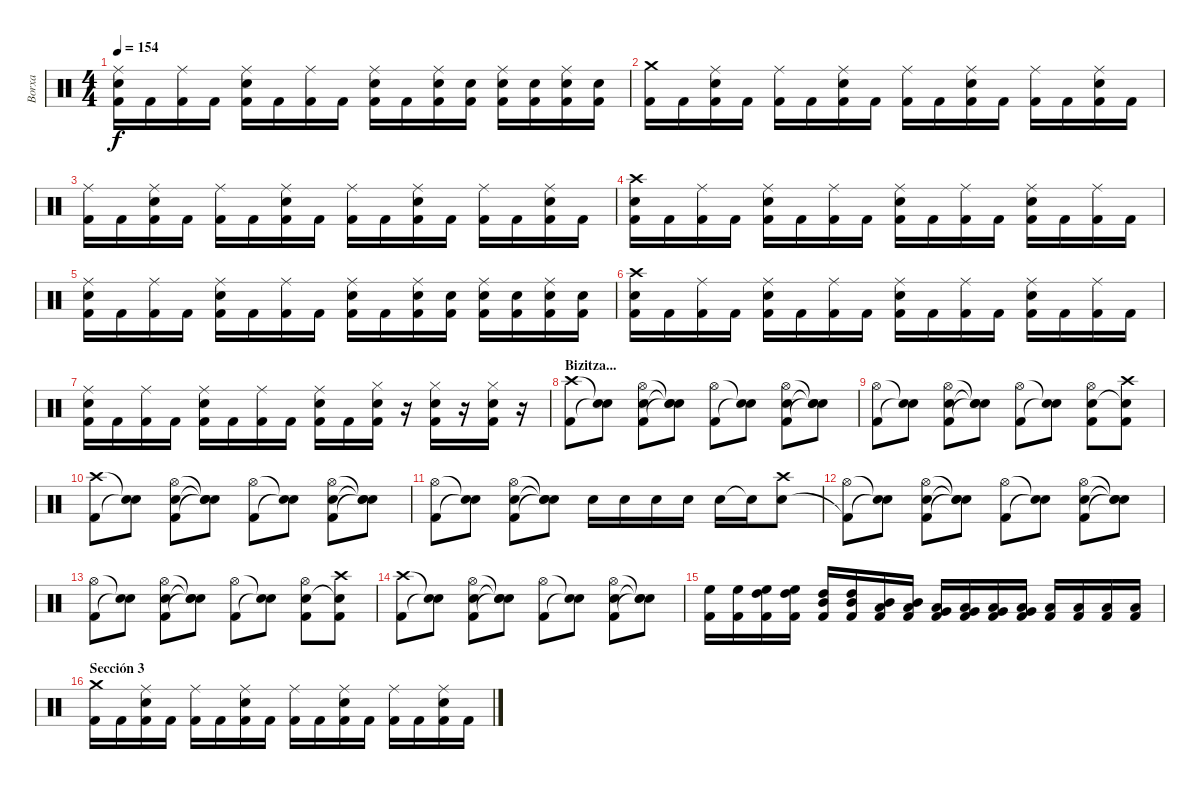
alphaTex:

\track ("Borxa" "Borxa") {instrument percussion}
\staff {score}
\articulation defaults
\ts (4 4)
\tempo 154
\clef neutral
\ks c
("Ride (middle)" "Electric Snare (hit)" "Kick (hit) 2").16{dy f} "Kick (hit) 2".16 ("Ride (middle)" "Kick (hit) 2").16 "Kick (hit) 2".16 ("Ride (middle)" "Electric Snare (hit)" "Kick (hit) 2").16 "Kick (hit) 2".16 ("Ride (middle)" "Kick (hit) 2").16 "Kick (hit) 2".16 ("Ride (middle)" "Electric Snare (hit)" "Kick (hit) 2").16 "Kick (hit) 2".16 ("Ride (middle)" "Electric Snare (hit)" "Kick (hit) 2").16 ("Electric Snare (hit)" "Kick (hit) 2").16 ("Ride (middle)" "Electric Snare (hit)" "Kick (hit) 2").16 ("Electric Snare (hit)" "Kick (hit) 2").16 ("Ride (middle)" "Electric Snare (hit)" "Kick (hit) 2").16 ("Electric Snare (hit)" "Kick (hit) 2").16 |
("Crash medium (hit)" "Kick (hit) 2").16 "Kick (hit) 2".16 ("Ride (middle)" "Electric Snare (hit)" "Kick (hit) 2").16 "Kick (hit) 2".16 ("Ride (middle)" "Kick (hit) 2").16 "Kick (hit) 2".16 ("Ride (middle)" "Electric Snare (hit)" "Kick (hit) 2").16 "Kick (hit) 2".16 ("Ride (middle)" "Kick (hit) 2").16 "Kick (hit) 2".16 ("Ride (middle)" "Electric Snare (hit)" "Kick (hit) 2").16 "Kick (hit) 2".16 ("Ride (middle)" "Kick (hit) 2").16 "Kick (hit) 2".16 ("Ride (middle)" "Electric Snare (hit)" "Kick (hit) 2").16 "Kick (hit) 2".16 |
("Ride (middle)" "Kick (hit) 2").16 "Kick (hit) 2".16 ("Ride (middle)" "Electric Snare (hit)" "Kick (hit) 2").16 "Kick (hit) 2".16 ("Ride (middle)" "Kick (hit) 2").16 "Kick (hit) 2".16 ("Ride (middle)" "Electric Snare (hit)" "Kick (hit) 2").16 "Kick (hit) 2".16 ("Ride (middle)" "Kick (hit) 2").16 "Kick (hit) 2".16 ("Ride (middle)" "Electric Snare (hit)" "Kick (hit) 2").16 "Kick (hit) 2".16 ("Ride (middle)" "Kick (hit) 2").16 "Kick (hit) 2".16 ("Ride (middle)" "Electric Snare (hit)" "Kick (hit) 2").16 "Kick (hit) 2".16 |
("Crash high (hit)" "Electric Snare (hit)" "Kick (hit) 2").16 "Kick (hit) 2".16 ("Ride (middle)" "Kick (hit) 2").16 "Kick (hit) 2".16 ("Ride (middle)" "Electric Snare (hit)" "Kick (hit) 2").16 "Kick (hit) 2".16 ("Ride (middle)" "Kick (hit) 2").16 "Kick (hit) 2".16 ("Ride (middle)" "Electric Snare (hit)" "Kick (hit) 2").16 "Kick (hit) 2".16 ("Ride (middle)" "Kick (hit) 2").16 "Kick (hit) 2".16 ("Ride (middle)" "Electric Snare (hit)" "Kick (hit) 2").16 "Kick (hit) 2".16 ("Ride (middle)" "Kick (hit) 2").16 "Kick (hit) 2".16 |
("Ride (middle)" "Electric Snare (hit)" "Kick (hit) 2").16 "Kick (hit) 2".16 ("Ride (middle)" "Kick (hit) 2").16 "Kick (hit) 2".16 ("Ride (middle)" "Electric Snare (hit)" "Kick (hit) 2").16 "Kick (hit) 2".16 ("Ride (middle)" "Kick (hit) 2").16 "Kick (hit) 2".16 ("Ride (middle)" "Electric Snare (hit)" "Kick (hit) 2").16 "Kick (hit) 2".16 ("Ride (middle)" "Electric Snare (hit)" "Kick (hit) 2").16 ("Electric Snare (hit)" "Kick (hit) 2").16 ("Ride (middle)" "Electric Snare (hit)" "Kick (hit) 2").16 ("Electric Snare (hit)" "Kick (hit) 2").16 ("Ride (middle)" "Electric Snare (hit)" "Kick (hit) 2").16 ("Electric Snare (hit)" "Kick (hit) 2").16 |
("Crash high (hit)" "Electric Snare (hit)" "Kick (hit) 2").16 "Kick (hit) 2".16 ("Ride (middle)" "Kick (hit) 2").16 "Kick (hit) 2".16 ("Ride (middle)" "Electric Snare (hit)" "Kick (hit) 2").16 "Kick (hit) 2".16 ("Ride (middle)" "Kick (hit) 2").16 "Kick (hit) 2".16 ("Ride (middle)" "Electric Snare (hit)" "Kick (hit) 2").16 "Kick (hit) 2".16 ("Ride (middle)" "Kick (hit) 2").16 "Kick (hit) 2".16 ("Ride (middle)" "Electric Snare (hit)" "Kick (hit) 2").16 "Kick (hit) 2".16 ("Ride (middle)" "Kick (hit) 2").16 "Kick (hit) 2".16 |
("Ride (middle)" "Electric Snare (hit)" "Kick (hit) 2").16 "Kick (hit) 2".16 ("Ride (middle)" "Kick (hit) 2").16 "Kick (hit) 2".16 ("Ride (middle)" "Electric Snare (hit)" "Kick (hit) 2").16 "Kick (hit) 2".16 ("Ride (middle)" "Kick (hit) 2").16 "Kick (hit) 2".16 ("Ride (middle)" "Electric Snare (hit)" "Kick (hit) 2").16 "Kick (hit) 2".16 ("Hi-Hat (closed)" "Electric Snare (hit)" "Kick (hit) 2").16 r.16 ("Hi-Hat (closed)" "Electric Snare (hit)" "Kick (hit) 2").16 r.16 ("Hi-Hat (closed)" "Electric Snare (hit)" "Kick (hit) 2").16 r.16 |
\section ("" "Bizitza...")
("Crash high (hit)" "Kick (hit) 2").8 ("Snare (hit)"{t} "Snare (hit)"{t}).8 ("Hi-Hat (open)" "Electric Snare (hit)" "Kick (hit) 2").8 ("Snare (hit)"{t} "Snare (hit)"{t} "Snare (hit)"{t}).8 ("Hi-Hat (open)" "Kick (hit) 2").8 ("Snare (hit)"{t} "Snare (hit)"{t}).8 ("Hi-Hat (open)" "Electric Snare (hit)" "Kick (hit) 2").8 ("Snare (hit)"{t} "Snare (hit)"{t} "Snare (hit)"{t}).8 |
("Hi-Hat (open)" "Kick (hit) 2").8 ("Snare (hit)"{t} "Snare (hit)"{t}).8 ("Hi-Hat (open)" "Electric Snare (hit)" "Kick (hit) 2").8 ("Snare (hit)"{t} "Snare (hit)"{t} "Snare (hit)"{t}).8 ("Hi-Hat (open)" "Kick (hit) 2").8 ("Snare (hit)"{t} "Snare (hit)"{t}).8 ("Hi-Hat (open)" "Electric Snare (hit)" "Kick (hit) 2").8 ("Crash high (hit)" "Snare (hit)"{t} "Kick (hit) 2").8 |
("Crash high (hit)" "Kick (hit) 2").8 ("Snare (hit)"{t} "Snare (hit)"{t}).8 ("Hi-Hat (open)" "Electric Snare (hit)" "Kick (hit) 2").8 ("Snare (hit)"{t} "Snare (hit)"{t} "Snare (hit)"{t}).8 ("Hi-Hat (open)" "Kick (hit) 2").8 ("Snare (hit)"{t} "Snare (hit)"{t}).8 ("Hi-Hat (open)" "Electric Snare (hit)" "Kick (hit) 2").8 ("Snare (hit)"{t} "Snare (hit)"{t} "Snare (hit)"{t}).8 |
("Hi-Hat (open)" "Kick (hit) 2").8 ("Snare (hit)"{t} "Snare (hit)"{t}).8 ("Hi-Hat (open)" "Electric Snare (hit)" "Kick (hit) 2").8 ("Snare (hit)"{t} "Snare (hit)"{t} "Snare (hit)"{t}).8 "Snare (hit) 2".16 "Snare (hit) 2".16 "Snare (hit) 2".16 "Snare (hit) 2".16 "Snare (hit) 2".16 "Snare (hit) 2"{t}.16 ("Crash high (hit)" "Snare (hit) 2").8 |
("Hi-Hat (open)" "Kick (hit) 2"{t}).8 ("Snare (hit)"{t} "Snare (hit)"{t}).8 ("Hi-Hat (open)" "Electric Snare (hit)" "Kick (hit) 2").8 ("Snare (hit)"{t} "Snare (hit)"{t} "Snare (hit)"{t}).8 ("Hi-Hat (open)" "Kick (hit) 2").8 ("Snare (hit)"{t} "Snare (hit)"{t}).8 ("Hi-Hat (open)" "Electric Snare (hit)" "Kick (hit) 2").8 ("Snare (hit)"{t} "Snare (hit)"{t} "Snare (hit)"{t}).8 |
("Hi-Hat (open)" "Kick (hit) 2").8 ("Snare (hit)"{t} "Snare (hit)"{t}).8 ("Hi-Hat (open)" "Electric Snare (hit)" "Kick (hit) 2").8 ("Snare (hit)"{t} "Snare (hit)"{t} "Snare (hit)"{t}).8 ("Hi-Hat (open)" "Kick (hit) 2").8 ("Snare (hit)"{t} "Snare (hit)"{t}).8 ("Hi-Hat (open)" "Electric Snare (hit)" "Kick (hit) 2").8 ("Crash high (hit)" "Snare (hit)"{t} "Kick (hit) 2").8 |
("Crash high (hit)" "Kick (hit) 2").8 ("Snare (hit)"{t} "Snare (hit)"{t}).8 ("Hi-Hat (open)" "Electric Snare (hit)" "Kick (hit) 2").8 ("Snare (hit)"{t} "Snare (hit)"{t} "Snare (hit)"{t}).8 ("Hi-Hat (open)" "Kick (hit) 2").8 ("Snare (hit)"{t} "Snare (hit)"{t}).8 ("Hi-Hat (open)" "Electric Snare (hit)" "Kick (hit) 2").8 ("Snare (hit)"{t} "Snare (hit)"{t} "Snare (hit)"{t}).8 |
("High Floor Tom (hit)" "Kick (hit) 2").16 ("High Floor Tom (hit)" "Kick (hit) 2").16 ("High Floor Tom (hit)" "High Tom (hit)" "Kick (hit) 2").16 ("High Floor Tom (hit)" "High Tom (hit)" "Kick (hit) 2").16 ("High Tom (hit)" "Mid Tom (hit)" "Kick (hit) 2").16 ("High Tom (hit)" "Mid Tom (hit)" "Kick (hit) 2").16 ("Mid Tom (hit)" "Low Tom (hit)" "Kick (hit) 2").16 ("Mid Tom (hit)" "Low Tom (hit)" "Kick (hit) 2").16 ("Low Tom (hit)" "Very Low Tom (hit)" "Kick (hit) 2").16 ("Low Tom (hit)" "Very Low Tom (hit)" "Kick (hit) 2").16 ("Low Floor Tom (hit)" "Very Low Tom (hit)" "Kick (hit) 2").16 ("Low Floor Tom (hit)" "Very Low Tom (hit)" "Kick (hit) 2").16 ("Low Floor Tom (hit)" "Kick (hit) 2").16 ("Low Floor Tom (hit)" "Kick (hit) 2").16 ("Low Floor Tom (hit)" "Kick (hit) 2").16 ("Low Floor Tom (hit)" "Kick (hit) 2").16 |
\section ("" "Sección 3")
("Crash medium (hit)" "Kick (hit) 2").16 "Kick (hit) 2".16 ("Ride (middle)" "Electric Snare (hit)" "Kick (hit) 2").16 "Kick (hit) 2".16 ("Ride (middle)" "Kick (hit) 2").16 "Kick (hit) 2".16 ("Ride (middle)" "Electric Snare (hit)" "Kick (hit) 2").16 "Kick (hit) 2".16 ("Ride (middle)" "Kick (hit) 2").16 "Kick (hit) 2".16 ("Ride (middle)" "Electric Snare (hit)" "Kick (hit) 2").16 "Kick (hit) 2".16 ("Ride (middle)" "Kick (hit) 2").16 "Kick (hit) 2".16 ("Ride (middle)" "Electric Snare (hit)" "Kick (hit) 2").16 "Kick (hit) 2".16
